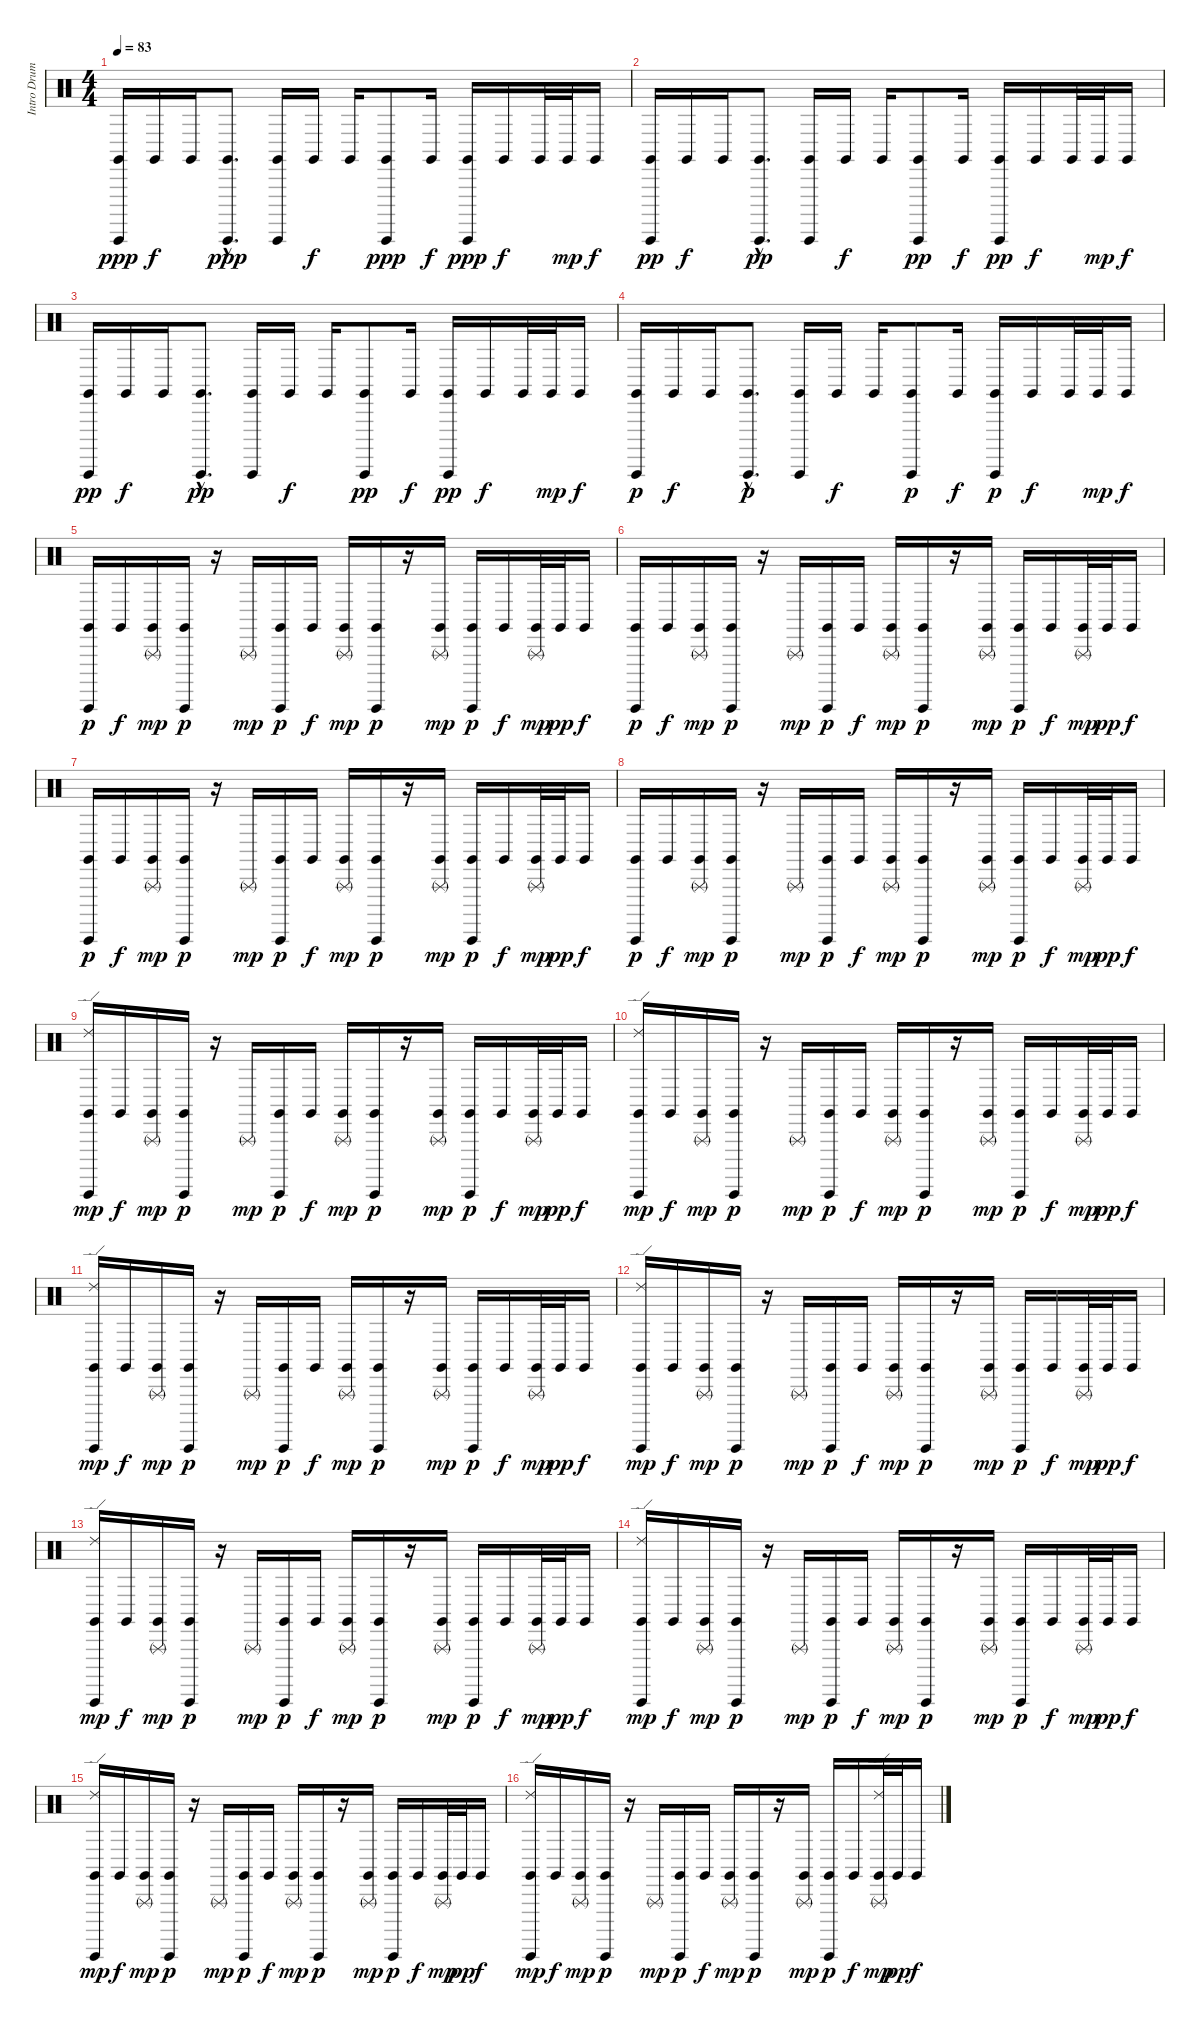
\track ("Intro Drums" "Intro Drum") {instrument percussion}
\staff {score}
\articulation defaults
\ts (4 4)
\tempo 83
\clef neutral
\ks c
("Claves (hit)" "Guiro (hit)").16{dy ppp} "Claves (hit)".16{dy f} "Claves (hit)".16 ("Claves (hit)"{hac} "Guiro (hit)"{hac}).8{d dy ppp} ("Claves (hit)" "Guiro (hit)").16 "Claves (hit)".16{dy f} "Claves (hit)".16 ("Claves (hit)" "Guiro (hit)").8{dy ppp} "Claves (hit)".16{dy f} ("Claves (hit)" "Guiro (hit)").16{dy ppp} "Claves (hit)".16{dy f} "Claves (hit)".32 "Claves (hit)".32{dy mp} "Claves (hit)".16{dy f} |
("Claves (hit)" "Guiro (hit)").16{dy pp} "Claves (hit)".16{dy f} "Claves (hit)".16 ("Claves (hit)"{hac} "Guiro (hit)"{hac}).8{d dy pp} ("Claves (hit)" "Guiro (hit)").16 "Claves (hit)".16{dy f} "Claves (hit)".16 ("Claves (hit)" "Guiro (hit)").8{dy pp} "Claves (hit)".16{dy f} ("Claves (hit)" "Guiro (hit)").16{dy pp} "Claves (hit)".16{dy f} "Claves (hit)".32 "Claves (hit)".32{dy mp} "Claves (hit)".16{dy f} |
("Claves (hit)" "Guiro (hit)").16{dy pp} "Claves (hit)".16{dy f} "Claves (hit)".16 ("Claves (hit)"{hac} "Guiro (hit)"{hac}).8{d dy pp} ("Claves (hit)" "Guiro (hit)").16 "Claves (hit)".16{dy f} "Claves (hit)".16 ("Claves (hit)" "Guiro (hit)").8{dy pp} "Claves (hit)".16{dy f} ("Claves (hit)" "Guiro (hit)").16{dy pp} "Claves (hit)".16{dy f} "Claves (hit)".32 "Claves (hit)".32{dy mp} "Claves (hit)".16{dy f} |
("Claves (hit)" "Guiro (hit)").16{dy p} "Claves (hit)".16{dy f} "Claves (hit)".16 ("Claves (hit)"{hac} "Guiro (hit)"{hac}).8{d dy p} ("Claves (hit)" "Guiro (hit)").16 "Claves (hit)".16{dy f} "Claves (hit)".16 ("Claves (hit)" "Guiro (hit)").8{dy p} "Claves (hit)".16{dy f} ("Claves (hit)" "Guiro (hit)").16{dy p} "Claves (hit)".16{dy f} "Claves (hit)".32 "Claves (hit)".32{dy mp} "Claves (hit)".16{dy f} |
("Claves (hit)" "Guiro (hit)").16{dy p} "Claves (hit)".16{dy f} ("Claves (hit)" "Triangle (rnute)").16{dy mp} ("Claves (hit)" "Guiro (hit)").16{dy p} r.16 "Triangle (rnute)".16{dy mp} ("Claves (hit)" "Guiro (hit)").16{dy p} "Claves (hit)".16{dy f} ("Claves (hit)" "Triangle (rnute)").16{dy mp} ("Claves (hit)" "Guiro (hit)").16{dy p} r.16 ("Claves (hit)" "Triangle (rnute)").16{dy mp} ("Claves (hit)" "Guiro (hit)").16{dy p} "Claves (hit)".16{dy f} ("Claves (hit)" "Triangle (rnute)").32{dy mp} "Claves (hit)".32{dy pp} "Claves (hit)".16{dy f} |
("Claves (hit)" "Guiro (hit)").16{dy p} "Claves (hit)".16{dy f} ("Claves (hit)" "Triangle (rnute)").16{dy mp} ("Claves (hit)" "Guiro (hit)").16{dy p} r.16 "Triangle (rnute)".16{dy mp} ("Claves (hit)" "Guiro (hit)").16{dy p} "Claves (hit)".16{dy f} ("Claves (hit)" "Triangle (rnute)").16{dy mp} ("Claves (hit)" "Guiro (hit)").16{dy p} r.16 ("Claves (hit)" "Triangle (rnute)").16{dy mp} ("Claves (hit)" "Guiro (hit)").16{dy p} "Claves (hit)".16{dy f} ("Claves (hit)" "Triangle (rnute)").32{dy mp} "Claves (hit)".32{dy pp} "Claves (hit)".16{dy f} |
("Claves (hit)" "Guiro (hit)").16{dy p} "Claves (hit)".16{dy f} ("Claves (hit)" "Triangle (rnute)").16{dy mp} ("Claves (hit)" "Guiro (hit)").16{dy p} r.16 "Triangle (rnute)".16{dy mp} ("Claves (hit)" "Guiro (hit)").16{dy p} "Claves (hit)".16{dy f} ("Claves (hit)" "Triangle (rnute)").16{dy mp} ("Claves (hit)" "Guiro (hit)").16{dy p} r.16 ("Claves (hit)" "Triangle (rnute)").16{dy mp} ("Claves (hit)" "Guiro (hit)").16{dy p} "Claves (hit)".16{dy f} ("Claves (hit)" "Triangle (rnute)").32{dy mp} "Claves (hit)".32{dy pp} "Claves (hit)".16{dy f} |
("Claves (hit)" "Guiro (hit)").16{dy p} "Claves (hit)".16{dy f} ("Claves (hit)" "Triangle (rnute)").16{dy mp} ("Claves (hit)" "Guiro (hit)").16{dy p} r.16 "Triangle (rnute)".16{dy mp} ("Claves (hit)" "Guiro (hit)").16{dy p} "Claves (hit)".16{dy f} ("Claves (hit)" "Triangle (rnute)").16{dy mp} ("Claves (hit)" "Guiro (hit)").16{dy p} r.16 ("Claves (hit)" "Triangle (rnute)").16{dy mp} ("Claves (hit)" "Guiro (hit)").16{dy p} "Claves (hit)".16{dy f} ("Claves (hit)" "Triangle (rnute)").32{dy mp} "Claves (hit)".32{dy pp} "Claves (hit)".16{dy f} |
("Claves (hit)" "Guiro (hit)" "Ride (edge) 2").16{dy mp} "Claves (hit)".16{dy f} ("Claves (hit)" "Triangle (rnute)").16{dy mp} ("Claves (hit)" "Guiro (hit)").16{dy p} r.16 "Triangle (rnute)".16{dy mp} ("Claves (hit)" "Guiro (hit)").16{dy p} "Claves (hit)".16{dy f} ("Claves (hit)" "Triangle (rnute)").16{dy mp} ("Claves (hit)" "Guiro (hit)").16{dy p} r.16 ("Claves (hit)" "Triangle (rnute)").16{dy mp} ("Claves (hit)" "Guiro (hit)").16{dy p} "Claves (hit)".16{dy f} ("Claves (hit)" "Triangle (rnute)").32{dy mp} "Claves (hit)".32{dy pp} "Claves (hit)".16{dy f} |
("Claves (hit)" "Guiro (hit)" "Ride (edge) 2").16{dy mp} "Claves (hit)".16{dy f} ("Claves (hit)" "Triangle (rnute)").16{dy mp} ("Claves (hit)" "Guiro (hit)").16{dy p} r.16 "Triangle (rnute)".16{dy mp} ("Claves (hit)" "Guiro (hit)").16{dy p} "Claves (hit)".16{dy f} ("Claves (hit)" "Triangle (rnute)").16{dy mp} ("Claves (hit)" "Guiro (hit)").16{dy p} r.16 ("Claves (hit)" "Triangle (rnute)").16{dy mp} ("Claves (hit)" "Guiro (hit)").16{dy p} "Claves (hit)".16{dy f} ("Claves (hit)" "Triangle (rnute)").32{dy mp} "Claves (hit)".32{dy pp} "Claves (hit)".16{dy f} |
("Claves (hit)" "Guiro (hit)" "Ride (edge) 2").16{dy mp} "Claves (hit)".16{dy f} ("Claves (hit)" "Triangle (rnute)").16{dy mp} ("Claves (hit)" "Guiro (hit)").16{dy p} r.16 "Triangle (rnute)".16{dy mp} ("Claves (hit)" "Guiro (hit)").16{dy p} "Claves (hit)".16{dy f} ("Claves (hit)" "Triangle (rnute)").16{dy mp} ("Claves (hit)" "Guiro (hit)").16{dy p} r.16 ("Claves (hit)" "Triangle (rnute)").16{dy mp} ("Claves (hit)" "Guiro (hit)").16{dy p} "Claves (hit)".16{dy f} ("Claves (hit)" "Triangle (rnute)").32{dy mp} "Claves (hit)".32{dy pp} "Claves (hit)".16{dy f} |
("Claves (hit)" "Guiro (hit)" "Ride (edge) 2").16{dy mp} "Claves (hit)".16{dy f} ("Claves (hit)" "Triangle (rnute)").16{dy mp} ("Claves (hit)" "Guiro (hit)").16{dy p} r.16 "Triangle (rnute)".16{dy mp} ("Claves (hit)" "Guiro (hit)").16{dy p} "Claves (hit)".16{dy f} ("Claves (hit)" "Triangle (rnute)").16{dy mp} ("Claves (hit)" "Guiro (hit)").16{dy p} r.16 ("Claves (hit)" "Triangle (rnute)").16{dy mp} ("Claves (hit)" "Guiro (hit)").16{dy p} "Claves (hit)".16{dy f} ("Claves (hit)" "Triangle (rnute)").32{dy mp} "Claves (hit)".32{dy pp} "Claves (hit)".16{dy f} |
("Claves (hit)" "Guiro (hit)" "Ride (edge) 2").16{dy mp} "Claves (hit)".16{dy f} ("Claves (hit)" "Triangle (rnute)").16{dy mp} ("Claves (hit)" "Guiro (hit)").16{dy p} r.16 "Triangle (rnute)".16{dy mp} ("Claves (hit)" "Guiro (hit)").16{dy p} "Claves (hit)".16{dy f} ("Claves (hit)" "Triangle (rnute)").16{dy mp} ("Claves (hit)" "Guiro (hit)").16{dy p} r.16 ("Claves (hit)" "Triangle (rnute)").16{dy mp} ("Claves (hit)" "Guiro (hit)").16{dy p} "Claves (hit)".16{dy f} ("Claves (hit)" "Triangle (rnute)").32{dy mp} "Claves (hit)".32{dy pp} "Claves (hit)".16{dy f} |
("Claves (hit)" "Guiro (hit)" "Ride (edge) 2").16{dy mp} "Claves (hit)".16{dy f} ("Claves (hit)" "Triangle (rnute)").16{dy mp} ("Claves (hit)" "Guiro (hit)").16{dy p} r.16 "Triangle (rnute)".16{dy mp} ("Claves (hit)" "Guiro (hit)").16{dy p} "Claves (hit)".16{dy f} ("Claves (hit)" "Triangle (rnute)").16{dy mp} ("Claves (hit)" "Guiro (hit)").16{dy p} r.16 ("Claves (hit)" "Triangle (rnute)").16{dy mp} ("Claves (hit)" "Guiro (hit)").16{dy p} "Claves (hit)".16{dy f} ("Claves (hit)" "Triangle (rnute)").32{dy mp} "Claves (hit)".32{dy pp} "Claves (hit)".16{dy f} |
("Claves (hit)" "Guiro (hit)" "Ride (edge) 2").16{dy mp} "Claves (hit)".16{dy f} ("Claves (hit)" "Triangle (rnute)").16{dy mp} ("Claves (hit)" "Guiro (hit)").16{dy p} r.16 "Triangle (rnute)".16{dy mp} ("Claves (hit)" "Guiro (hit)").16{dy p} "Claves (hit)".16{dy f} ("Claves (hit)" "Triangle (rnute)").16{dy mp} ("Claves (hit)" "Guiro (hit)").16{dy p} r.16 ("Claves (hit)" "Triangle (rnute)").16{dy mp} ("Claves (hit)" "Guiro (hit)").16{dy p} "Claves (hit)".16{dy f} ("Claves (hit)" "Triangle (rnute)").32{dy mp} "Claves (hit)".32{dy pp} "Claves (hit)".16{dy f} |
("Claves (hit)" "Guiro (hit)" "Ride (edge) 2").16{dy mp} "Claves (hit)".16{dy f} ("Claves (hit)" "Triangle (rnute)").16{dy mp} ("Claves (hit)" "Guiro (hit)").16{dy p} r.16 "Triangle (rnute)".16{dy mp} ("Claves (hit)" "Guiro (hit)").16{dy p} "Claves (hit)".16{dy f} ("Claves (hit)" "Triangle (rnute)").16{dy mp} ("Claves (hit)" "Guiro (hit)").16{dy p} r.16 ("Claves (hit)" "Triangle (rnute)").16{dy mp} ("Claves (hit)" "Guiro (hit)").16{dy p} "Claves (hit)".16{dy f} ("Claves (hit)" "Triangle (rnute)" "Ride (edge) 2").32{dy mp} "Claves (hit)".32{dy pp} "Claves (hit)".16{dy f}
